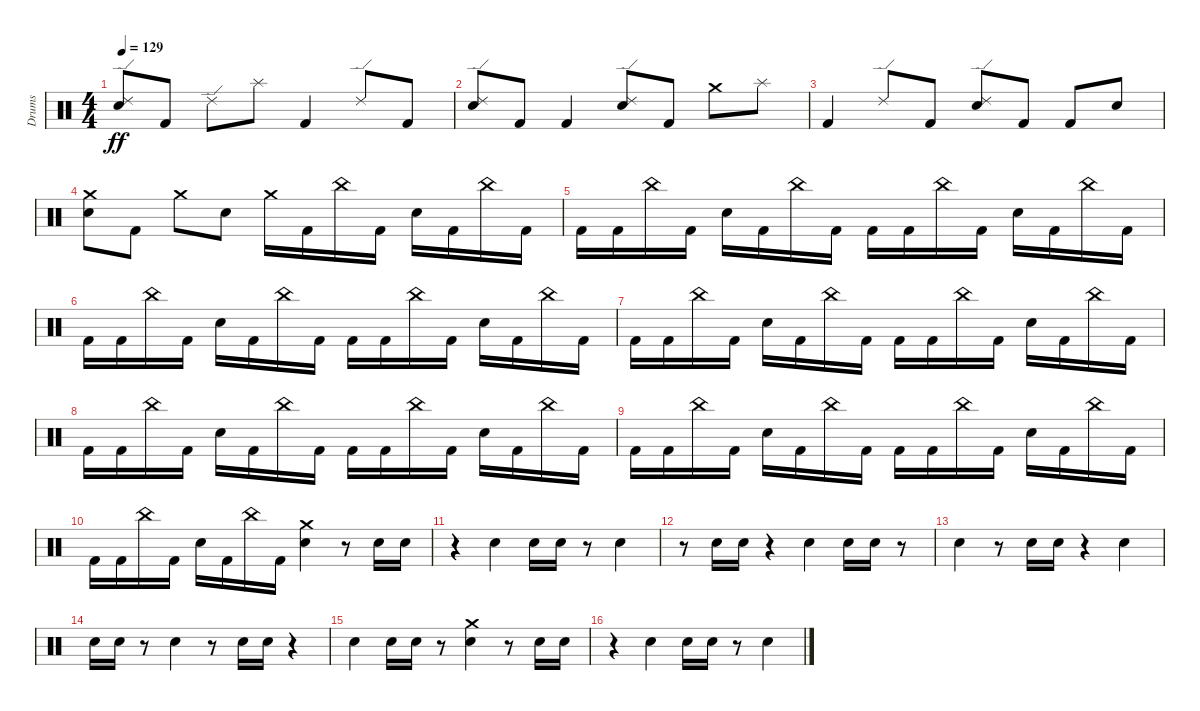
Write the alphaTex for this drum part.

\track ("Drums" "Drums") {instrument percussion}
\staff {score}
\articulation defaults
\ts (4 4)
\tempo 129
\clef neutral
\ks c
("Electric Snare (hit)" "Ride (edge) 2").8{dy ff} "Kick (hit) 2".8 "Ride (edge) 2".8 "Splash (hit)".8 "Kick (hit) 2".4 "Ride (edge) 2".8 "Kick (hit) 2".8 |
("Electric Snare (hit)" "Ride (edge) 2").8 "Kick (hit) 2".8 "Kick (hit) 2".4 ("Electric Snare (hit)" "Ride (edge) 2").8 "Kick (hit) 2".8 "Crash medium (hit)".8 "Splash (hit)".8 |
"Kick (hit) 2".4 "Ride (edge) 2".8 "Kick (hit) 2".8 ("Electric Snare (hit)" "Ride (edge) 2").8 "Kick (hit) 2".8 "Kick (hit) 2".8 "Electric Snare (hit)".8 |
("Electric Snare (hit)" "Crash medium (hit)").8 "Kick (hit) 2".8 "Crash medium (hit)".8 "Electric Snare (hit)".8 "Crash medium (hit)".16 "Kick (hit) 2".16 "China (hit)".16 "Kick (hit) 2".16 "Electric Snare (hit)".16 "Kick (hit) 2".16 "China (hit)".16 "Kick (hit) 2".16 |
"Kick (hit) 2".16 "Kick (hit) 2".16 "China (hit)".16 "Kick (hit) 2".16 "Electric Snare (hit)".16 "Kick (hit) 2".16 "China (hit)".16 "Kick (hit) 2".16 "Kick (hit) 2".16 "Kick (hit) 2".16 "China (hit)".16 "Kick (hit) 2".16 "Electric Snare (hit)".16 "Kick (hit) 2".16 "China (hit)".16 "Kick (hit) 2".16 |
"Kick (hit) 2".16 "Kick (hit) 2".16 "China (hit)".16 "Kick (hit) 2".16 "Electric Snare (hit)".16 "Kick (hit) 2".16 "China (hit)".16 "Kick (hit) 2".16 "Kick (hit) 2".16 "Kick (hit) 2".16 "China (hit)".16 "Kick (hit) 2".16 "Electric Snare (hit)".16 "Kick (hit) 2".16 "China (hit)".16 "Kick (hit) 2".16 |
"Kick (hit) 2".16 "Kick (hit) 2".16 "China (hit)".16 "Kick (hit) 2".16 "Electric Snare (hit)".16 "Kick (hit) 2".16 "China (hit)".16 "Kick (hit) 2".16 "Kick (hit) 2".16 "Kick (hit) 2".16 "China (hit)".16 "Kick (hit) 2".16 "Electric Snare (hit)".16 "Kick (hit) 2".16 "China (hit)".16 "Kick (hit) 2".16 |
"Kick (hit) 2".16 "Kick (hit) 2".16 "China (hit)".16 "Kick (hit) 2".16 "Electric Snare (hit)".16 "Kick (hit) 2".16 "China (hit)".16 "Kick (hit) 2".16 "Kick (hit) 2".16 "Kick (hit) 2".16 "China (hit)".16 "Kick (hit) 2".16 "Electric Snare (hit)".16 "Kick (hit) 2".16 "China (hit)".16 "Kick (hit) 2".16 |
"Kick (hit) 2".16 "Kick (hit) 2".16 "China (hit)".16 "Kick (hit) 2".16 "Electric Snare (hit)".16 "Kick (hit) 2".16 "China (hit)".16 "Kick (hit) 2".16 "Kick (hit) 2".16 "Kick (hit) 2".16 "China (hit)".16 "Kick (hit) 2".16 "Electric Snare (hit)".16 "Kick (hit) 2".16 "China (hit)".16 "Kick (hit) 2".16 |
"Kick (hit) 2".16 "Kick (hit) 2".16 "China (hit)".16 "Kick (hit) 2".16 "Electric Snare (hit)".16 "Kick (hit) 2".16 "China (hit)".16 "Kick (hit) 2".16 ("Electric Snare (hit)" "Crash medium (hit)").4 r.8 "Electric Snare (hit)".16 "Electric Snare (hit)".16 |
r.4 "Electric Snare (hit)".4 "Electric Snare (hit)".16 "Electric Snare (hit)".16 r.8 "Electric Snare (hit)".4 |
r.8 "Electric Snare (hit)".16 "Electric Snare (hit)".16 r.4 "Electric Snare (hit)".4 "Electric Snare (hit)".16 "Electric Snare (hit)".16 r.8 |
"Electric Snare (hit)".4 r.8 "Electric Snare (hit)".16 "Electric Snare (hit)".16 r.4 "Electric Snare (hit)".4 |
"Electric Snare (hit)".16 "Electric Snare (hit)".16 r.8 "Electric Snare (hit)".4 r.8 "Electric Snare (hit)".16 "Electric Snare (hit)".16 r.4 |
"Electric Snare (hit)".4 "Electric Snare (hit)".16 "Electric Snare (hit)".16 r.8 ("Electric Snare (hit)" "Crash medium (hit)").4 r.8 "Electric Snare (hit)".16 "Electric Snare (hit)".16 |
r.4 "Electric Snare (hit)".4 "Electric Snare (hit)".16 "Electric Snare (hit)".16 r.8 "Electric Snare (hit)".4
